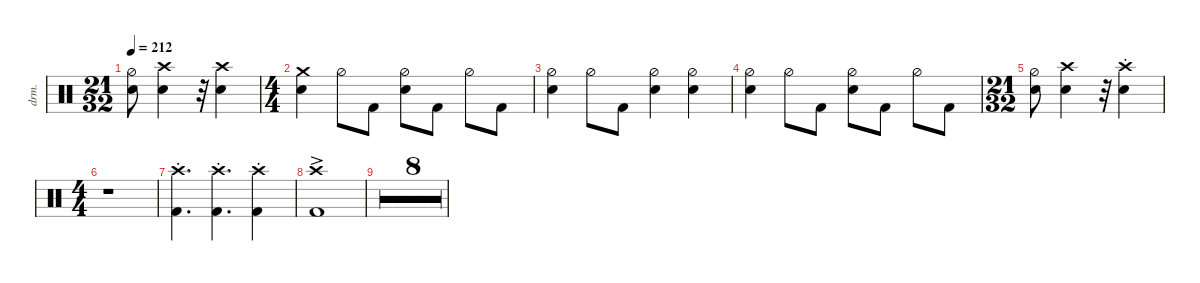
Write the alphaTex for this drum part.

\defaultSystemsLayout 4
\hideDynamics
\bracketExtendMode nobrackets
\track ("Drums" "drm.") {defaultSystemsLayout 4 multiBarRest instrument percussion}
\staff
\articulation defaults
\ts (21 32)
\beaming (8 3 2)
\tempo 212
\clef neutral
\ks c
("Snare (hit) 2" "Hi-Hat (half)").8{dy f} ("Snare (hit) 2" "Crash high (hit)").4 r.32 ("Snare (hit) 2" "Crash high (hit)").4 |
\ts (4 4)
\beaming (8 2 2 2 2)
("Snare (hit) 2" "Crash medium (hit)").4 "Hi-Hat (half)".8 "Kick (hit) 2".8 ("Hi-Hat (half)" "Snare (hit) 2").8 "Kick (hit) 2".8 "Hi-Hat (half)".8 "Kick (hit) 2".8 |
("Hi-Hat (half)" "Snare (hit) 2").4 "Hi-Hat (half)".8 "Kick (hit) 2".8 ("Hi-Hat (half)" "Snare (hit) 2").4 ("Hi-Hat (half)" "Snare (hit) 2").4 |
("Hi-Hat (half)" "Snare (hit) 2").4 "Hi-Hat (half)".8 "Kick (hit) 2".8 ("Snare (hit) 2" "Hi-Hat (half)").8 "Kick (hit) 2".8 "Hi-Hat (half)".8 "Kick (hit) 2".8 |
\ts (21 32)
\beaming (8 3 2)
("Snare (hit) 2" "Hi-Hat (half)").8 ("Snare (hit) 2" "Crash high (hit)").4 r.32 ("Snare (hit) 2" "Crash high (hit)"{st}).4 |
\ts (4 4)
\beaming (8 2 2 2 2)
r.1 |
("Kick (hit) 2" "Crash high (hit)"{st}).4{d} ("Kick (hit) 2" "Crash high (hit)"{st}).4{d} ("Kick (hit) 2" "Crash high (hit)"{st}).4 |
("Crash high (hit)"{ac} "Kick (hit) 2").1 |
r.1 |
r.1 |
r.1 |
r.1 |
r.1 |
r.1 |
r.1 |
r.1
